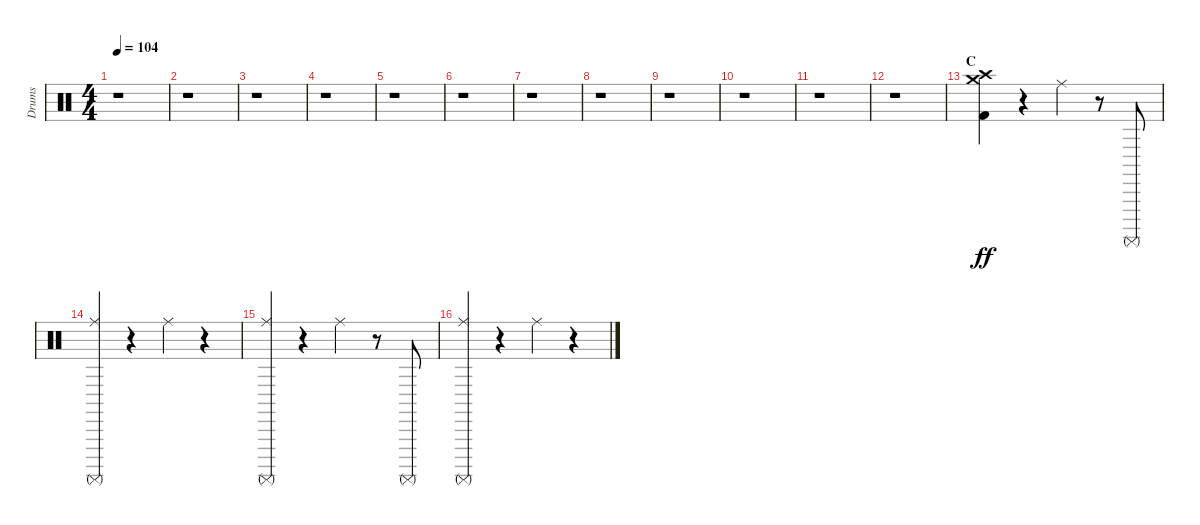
\track ("Drums" "Drums") {instrument percussion}
\staff {score}
\articulation defaults
\ts (4 4)
\tempo 104
\clef neutral
\ks c
r.1{dy mf} |
r.1 |
r.1 |
r.1 |
r.1 |
r.1 |
r.1 |
r.1 |
r.1 |
r.1 |
r.1 |
r.1 |
\section ("" "C")
("Crash medium (hit)" "Kick (hit) 2" "Crash high (hit)").4{dy ff} r.4 "Ride (middle)".4 r.8 "Surdo (mute)".8 |
("Ride (middle)" "Surdo (mute)").4 r.4 "Ride (middle)".4 r.4 |
("Ride (middle)" "Surdo (mute)").4 r.4 "Ride (middle)".4 r.8 "Surdo (mute)".8 |
("Ride (middle)" "Surdo (mute)").4 r.4 "Ride (middle)".4 r.4
